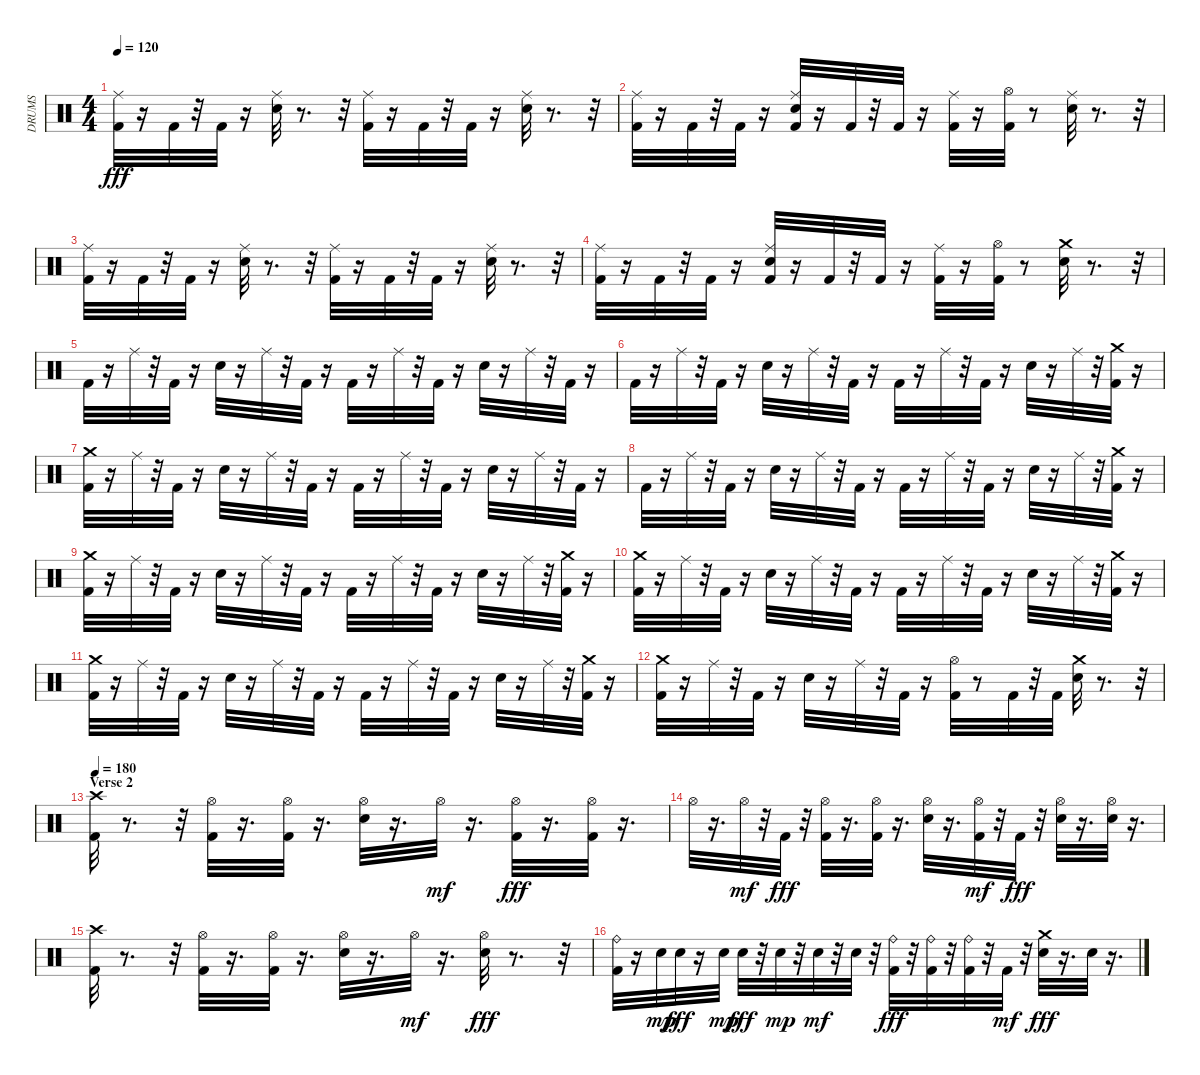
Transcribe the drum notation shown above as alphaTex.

\track ("DRUMS" "DRUMS") {instrument percussion}
\staff {score}
\articulation defaults
\ts (4 4)
\tempo 120
\clef neutral
\ks c
("Kick (hit) 2" "Ride (middle)").32{dy fff} r.16 "Kick (hit) 2".32 r.32 "Kick (hit) 2".32 r.16 ("Electric Snare (hit)" "Ride (middle)").32 r.8{d} r.32 ("Kick (hit) 2" "Ride (middle)").32 r.16 "Kick (hit) 2".32 r.32 "Kick (hit) 2".32 r.16 ("Electric Snare (hit)" "Ride (middle)").32 r.8{d} r.32 |
("Kick (hit) 2" "Ride (middle)").32 r.16 "Kick (hit) 2".32 r.32 "Kick (hit) 2".32 r.16 ("Electric Snare (hit)" "Kick (hit) 2" "Ride (middle)").32 r.16 "Kick (hit) 2".32 r.32 "Kick (hit) 2".32 r.16 ("Kick (hit) 2" "Ride (middle)").32 r.16 ("Hi-Hat (open)" "Kick (hit) 2").32 r.8 ("Electric Snare (hit)" "Ride (middle)").32 r.8{d} r.32 |
("Kick (hit) 2" "Ride (middle)").32 r.16 "Kick (hit) 2".32 r.32 "Kick (hit) 2".32 r.16 ("Electric Snare (hit)" "Ride (middle)").32 r.8{d} r.32 ("Kick (hit) 2" "Ride (middle)").32 r.16 "Kick (hit) 2".32 r.32 "Kick (hit) 2".32 r.16 ("Electric Snare (hit)" "Ride (middle)").32 r.8{d} r.32 |
("Kick (hit) 2" "Ride (middle)").32 r.16 "Kick (hit) 2".32 r.32 "Kick (hit) 2".32 r.16 ("Electric Snare (hit)" "Kick (hit) 2" "Ride (middle)").32 r.16 "Kick (hit) 2".32 r.32 "Kick (hit) 2".32 r.16 ("Kick (hit) 2" "Ride (middle)").32 r.16 ("Hi-Hat (open)" "Kick (hit) 2").32 r.8 ("Crash medium (hit)" "Electric Snare (hit)").32 r.8{d} r.32 |
"Kick (hit) 2".32 r.16 "Ride (middle)".32 r.32 "Kick (hit) 2".32 r.16 "Electric Snare (hit)".32 r.16 "Ride (middle)".32 r.32 "Kick (hit) 2".32 r.16 "Kick (hit) 2".32 r.16 "Ride (middle)".32 r.32 "Kick (hit) 2".32 r.16 "Electric Snare (hit)".32 r.16 "Ride (middle)".32 r.32 "Kick (hit) 2".32 r.16 |
"Kick (hit) 2".32 r.16 "Ride (middle)".32 r.32 "Kick (hit) 2".32 r.16 "Electric Snare (hit)".32 r.16 "Ride (middle)".32 r.32 "Kick (hit) 2".32 r.16 "Kick (hit) 2".32 r.16 "Ride (middle)".32 r.32 "Kick (hit) 2".32 r.16 "Electric Snare (hit)".32 r.16 "Ride (middle)".32 r.32 ("Crash medium (hit)" "Kick (hit) 2").32 r.16 |
("Crash medium (hit)" "Kick (hit) 2").32 r.16 "Ride (middle)".32 r.32 "Kick (hit) 2".32 r.16 "Electric Snare (hit)".32 r.16 "Ride (middle)".32 r.32 "Kick (hit) 2".32 r.16 "Kick (hit) 2".32 r.16 "Ride (middle)".32 r.32 "Kick (hit) 2".32 r.16 "Electric Snare (hit)".32 r.16 "Ride (middle)".32 r.32 "Kick (hit) 2".32 r.16 |
"Kick (hit) 2".32 r.16 "Ride (middle)".32 r.32 "Kick (hit) 2".32 r.16 "Electric Snare (hit)".32 r.16 "Ride (middle)".32 r.32 "Kick (hit) 2".32 r.16 "Kick (hit) 2".32 r.16 "Ride (middle)".32 r.32 "Kick (hit) 2".32 r.16 "Electric Snare (hit)".32 r.16 "Ride (middle)".32 r.32 ("Crash medium (hit)" "Kick (hit) 2").32 r.16 |
("Crash medium (hit)" "Kick (hit) 2").32 r.16 "Ride (middle)".32 r.32 "Kick (hit) 2".32 r.16 "Electric Snare (hit)".32 r.16 "Ride (middle)".32 r.32 "Kick (hit) 2".32 r.16 "Kick (hit) 2".32 r.16 "Ride (middle)".32 r.32 "Kick (hit) 2".32 r.16 "Electric Snare (hit)".32 r.16 "Ride (middle)".32 r.32 ("Crash medium (hit)" "Kick (hit) 2").32 r.16 |
("Crash medium (hit)" "Kick (hit) 2").32 r.16 "Ride (middle)".32 r.32 "Kick (hit) 2".32 r.16 "Electric Snare (hit)".32 r.16 "Ride (middle)".32 r.32 "Kick (hit) 2".32 r.16 "Kick (hit) 2".32 r.16 "Ride (middle)".32 r.32 "Kick (hit) 2".32 r.16 "Electric Snare (hit)".32 r.16 "Ride (middle)".32 r.32 ("Crash medium (hit)" "Kick (hit) 2").32 r.16 |
("Crash medium (hit)" "Kick (hit) 2").32 r.16 "Ride (middle)".32 r.32 "Kick (hit) 2".32 r.16 "Electric Snare (hit)".32 r.16 "Ride (middle)".32 r.32 "Kick (hit) 2".32 r.16 "Kick (hit) 2".32 r.16 "Ride (middle)".32 r.32 "Kick (hit) 2".32 r.16 "Electric Snare (hit)".32 r.16 "Ride (middle)".32 r.32 ("Crash medium (hit)" "Kick (hit) 2").32 r.16 |
("Crash medium (hit)" "Kick (hit) 2").32 r.16 "Ride (middle)".32 r.32 "Kick (hit) 2".32 r.16 "Electric Snare (hit)".32 r.16 "Ride (middle)".32 r.32 "Kick (hit) 2".32 r.16 ("Hi-Hat (open)" "Kick (hit) 2").32 r.8 "Kick (hit) 2".32 r.32 "Kick (hit) 2".32 ("Crash medium (hit)" "Electric Snare (hit)").32 r.8{d} r.32 |
\section ("" "Verse 2")
\tempo 180
("Crash high (hit)" "Kick (hit) 2").32 r.8{d} r.32 ("Hi-Hat (open)" "Kick (hit) 2").32 r.16{d} ("Hi-Hat (open)" "Kick (hit) 2").32 r.16{d} ("Hi-Hat (open)" "Electric Snare (hit)").32 r.16{d} "Hi-Hat (open)".32{dy mf} r.16{d} ("Hi-Hat (open)" "Kick (hit) 2").32{dy fff} r.16{d} ("Hi-Hat (open)" "Kick (hit) 2").32 r.16{d} |
"Hi-Hat (open)".32 r.16{d} "Hi-Hat (open)".32{dy mf} r.32 "Kick (hit) 2".32{dy fff} r.32 ("Hi-Hat (open)" "Kick (hit) 2").32 r.16{d} ("Hi-Hat (open)" "Kick (hit) 2").32 r.16{d} ("Hi-Hat (open)" "Electric Snare (hit)").32 r.16{d} ("Hi-Hat (open)" "Kick (hit) 2").32{dy mf} r.32 "Kick (hit) 2".32{dy fff} r.32 ("Hi-Hat (open)" "Electric Snare (hit)").32 r.16{d} ("Hi-Hat (open)" "Electric Snare (hit)").32 r.16{d} |
("Crash high (hit)" "Kick (hit) 2").32 r.8{d} r.32 ("Hi-Hat (open)" "Kick (hit) 2").32 r.16{d} ("Hi-Hat (open)" "Kick (hit) 2").32 r.16{d} ("Hi-Hat (open)" "Electric Snare (hit)").32 r.16{d} "Hi-Hat (open)".32{dy mf} r.16{d} ("Hi-Hat (open)" "Electric Snare (hit)").32{dy fff} r.8{d} r.32 |
("Ride (bell)" "Kick (hit) 2").32 r.16 "Electric Snare (hit)".32{dy mp} "Electric Snare (hit)".32{dy fff} r.16 "Electric Snare (hit)".32{dy mp} "Electric Snare (hit)".32{dy fff} r.32 "Electric Snare (hit)".32{dy mp} r.32 "Electric Snare (hit)".32{dy mf} r.32 "Electric Snare (hit)".32 r.32 ("Ride (bell)" "Kick (hit) 2").32{dy fff} r.32 ("Ride (bell)" "Kick (hit) 2").32 r.32 ("Ride (bell)" "Kick (hit) 2").32 r.32 "Kick (hit) 2".32{dy mf} r.32 ("Crash medium (hit)" "Electric Snare (hit)").32{dy fff} r.16{d} "Electric Snare (hit)".32 r.16{d}
